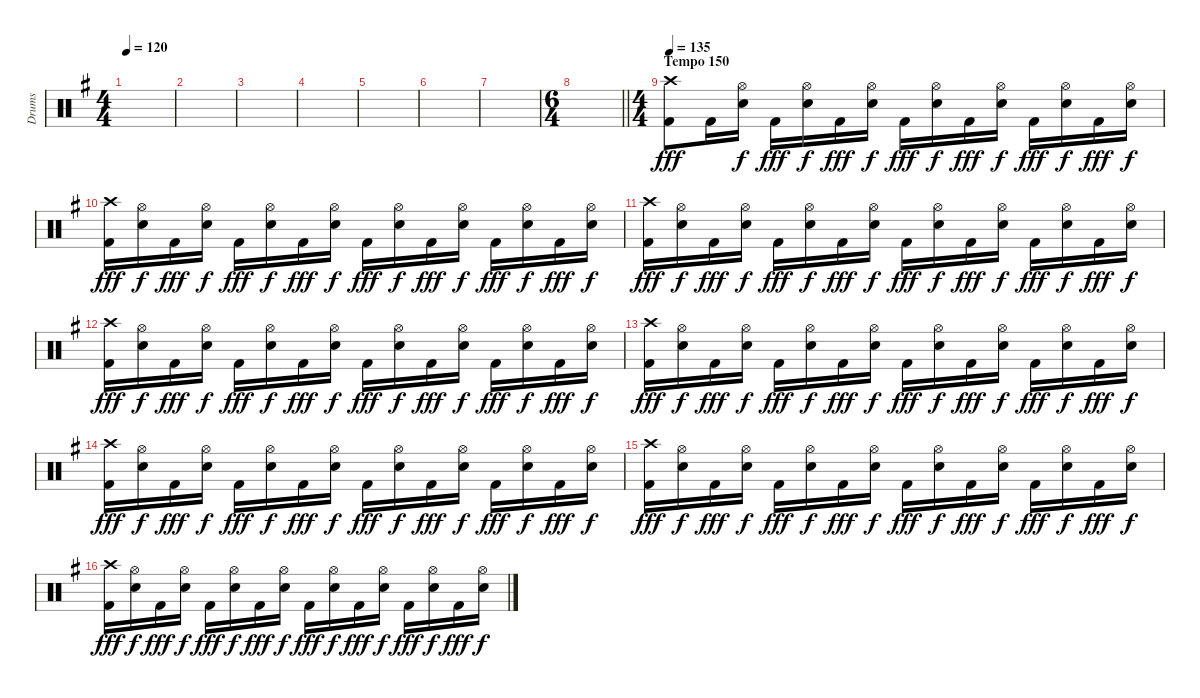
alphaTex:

\track ("Drums" "Drums") {instrument percussion}
\staff {score}
\articulation defaults
\ts (4 4)
\tempo 120
\clef neutral
\ks g
|
|
|
|
|
|
|
\ts (6 4)
\barLineRight lightlight
|
\ts (4 4)
\section ("" "Tempo 150")
\tempo 150
\tempo 135
("Crash high (hit)" "Kick (hit) 2").8{dy fff} "Kick (hit) 2".16 ("Hi-Hat (open)" "Snare (hit) 2").16{dy f} "Kick (hit) 2".16{dy fff} ("Hi-Hat (open)" "Snare (hit) 2").16{dy f} "Kick (hit) 2".16{dy fff} ("Hi-Hat (open)" "Snare (hit) 2").16{dy f} "Kick (hit) 2".16{dy fff} ("Hi-Hat (open)" "Snare (hit) 2").16{dy f} "Kick (hit) 2".16{dy fff} ("Hi-Hat (open)" "Snare (hit) 2").16{dy f} "Kick (hit) 2".16{dy fff} ("Hi-Hat (open)" "Snare (hit) 2").16{dy f} "Kick (hit) 2".16{dy fff} ("Hi-Hat (open)" "Snare (hit) 2").16{dy f} |
("Crash high (hit)" "Kick (hit) 2").16{dy fff} ("Hi-Hat (open)" "Snare (hit) 2").16{dy f} "Kick (hit) 2".16{dy fff} ("Hi-Hat (open)" "Snare (hit) 2").16{dy f} "Kick (hit) 2".16{dy fff} ("Hi-Hat (open)" "Snare (hit) 2").16{dy f} "Kick (hit) 2".16{dy fff} ("Hi-Hat (open)" "Snare (hit) 2").16{dy f} "Kick (hit) 2".16{dy fff} ("Hi-Hat (open)" "Snare (hit) 2").16{dy f} "Kick (hit) 2".16{dy fff} ("Hi-Hat (open)" "Snare (hit) 2").16{dy f} "Kick (hit) 2".16{dy fff} ("Hi-Hat (open)" "Snare (hit) 2").16{dy f} "Kick (hit) 2".16{dy fff} ("Hi-Hat (open)" "Snare (hit) 2").16{dy f} |
("Crash high (hit)" "Kick (hit) 2").16{dy fff} ("Hi-Hat (open)" "Snare (hit) 2").16{dy f} "Kick (hit) 2".16{dy fff} ("Hi-Hat (open)" "Snare (hit) 2").16{dy f} "Kick (hit) 2".16{dy fff} ("Hi-Hat (open)" "Snare (hit) 2").16{dy f} "Kick (hit) 2".16{dy fff} ("Hi-Hat (open)" "Snare (hit) 2").16{dy f} "Kick (hit) 2".16{dy fff} ("Hi-Hat (open)" "Snare (hit) 2").16{dy f} "Kick (hit) 2".16{dy fff} ("Hi-Hat (open)" "Snare (hit) 2").16{dy f} "Kick (hit) 2".16{dy fff} ("Hi-Hat (open)" "Snare (hit) 2").16{dy f} "Kick (hit) 2".16{dy fff} ("Hi-Hat (open)" "Snare (hit) 2").16{dy f} |
("Crash high (hit)" "Kick (hit) 2").16{dy fff} ("Hi-Hat (open)" "Snare (hit) 2").16{dy f} "Kick (hit) 2".16{dy fff} ("Hi-Hat (open)" "Snare (hit) 2").16{dy f} "Kick (hit) 2".16{dy fff} ("Hi-Hat (open)" "Snare (hit) 2").16{dy f} "Kick (hit) 2".16{dy fff} ("Hi-Hat (open)" "Snare (hit) 2").16{dy f} "Kick (hit) 2".16{dy fff} ("Hi-Hat (open)" "Snare (hit) 2").16{dy f} "Kick (hit) 2".16{dy fff} ("Hi-Hat (open)" "Snare (hit) 2").16{dy f} "Kick (hit) 2".16{dy fff} ("Hi-Hat (open)" "Snare (hit) 2").16{dy f} "Kick (hit) 2".16{dy fff} ("Hi-Hat (open)" "Snare (hit) 2").16{dy f} |
("Crash high (hit)" "Kick (hit) 2").16{dy fff} ("Hi-Hat (open)" "Snare (hit) 2").16{dy f} "Kick (hit) 2".16{dy fff} ("Hi-Hat (open)" "Snare (hit) 2").16{dy f} "Kick (hit) 2".16{dy fff} ("Hi-Hat (open)" "Snare (hit) 2").16{dy f} "Kick (hit) 2".16{dy fff} ("Hi-Hat (open)" "Snare (hit) 2").16{dy f} "Kick (hit) 2".16{dy fff} ("Hi-Hat (open)" "Snare (hit) 2").16{dy f} "Kick (hit) 2".16{dy fff} ("Hi-Hat (open)" "Snare (hit) 2").16{dy f} "Kick (hit) 2".16{dy fff} ("Hi-Hat (open)" "Snare (hit) 2").16{dy f} "Kick (hit) 2".16{dy fff} ("Hi-Hat (open)" "Snare (hit) 2").16{dy f} |
("Crash high (hit)" "Kick (hit) 2").16{dy fff} ("Hi-Hat (open)" "Snare (hit) 2").16{dy f} "Kick (hit) 2".16{dy fff} ("Hi-Hat (open)" "Snare (hit) 2").16{dy f} "Kick (hit) 2".16{dy fff} ("Hi-Hat (open)" "Snare (hit) 2").16{dy f} "Kick (hit) 2".16{dy fff} ("Hi-Hat (open)" "Snare (hit) 2").16{dy f} "Kick (hit) 2".16{dy fff} ("Hi-Hat (open)" "Snare (hit) 2").16{dy f} "Kick (hit) 2".16{dy fff} ("Hi-Hat (open)" "Snare (hit) 2").16{dy f} "Kick (hit) 2".16{dy fff} ("Hi-Hat (open)" "Snare (hit) 2").16{dy f} "Kick (hit) 2".16{dy fff} ("Hi-Hat (open)" "Snare (hit) 2").16{dy f} |
("Crash high (hit)" "Kick (hit) 2").16{dy fff} ("Hi-Hat (open)" "Snare (hit) 2").16{dy f} "Kick (hit) 2".16{dy fff} ("Hi-Hat (open)" "Snare (hit) 2").16{dy f} "Kick (hit) 2".16{dy fff} ("Hi-Hat (open)" "Snare (hit) 2").16{dy f} "Kick (hit) 2".16{dy fff} ("Hi-Hat (open)" "Snare (hit) 2").16{dy f} "Kick (hit) 2".16{dy fff} ("Hi-Hat (open)" "Snare (hit) 2").16{dy f} "Kick (hit) 2".16{dy fff} ("Hi-Hat (open)" "Snare (hit) 2").16{dy f} "Kick (hit) 2".16{dy fff} ("Hi-Hat (open)" "Snare (hit) 2").16{dy f} "Kick (hit) 2".16{dy fff} ("Hi-Hat (open)" "Snare (hit) 2").16{dy f} |
("Crash high (hit)" "Kick (hit) 2").16{dy fff} ("Hi-Hat (open)" "Snare (hit) 2").16{dy f} "Kick (hit) 2".16{dy fff} ("Hi-Hat (open)" "Snare (hit) 2").16{dy f} "Kick (hit) 2".16{dy fff} ("Hi-Hat (open)" "Snare (hit) 2").16{dy f} "Kick (hit) 2".16{dy fff} ("Hi-Hat (open)" "Snare (hit) 2").16{dy f} "Kick (hit) 2".16{dy fff} ("Hi-Hat (open)" "Snare (hit) 2").16{dy f} "Kick (hit) 2".16{dy fff} ("Hi-Hat (open)" "Snare (hit) 2").16{dy f} "Kick (hit) 2".16{dy fff} ("Hi-Hat (open)" "Snare (hit) 2").16{dy f} "Kick (hit) 2".16{dy fff} ("Hi-Hat (open)" "Snare (hit) 2").16{dy f}
